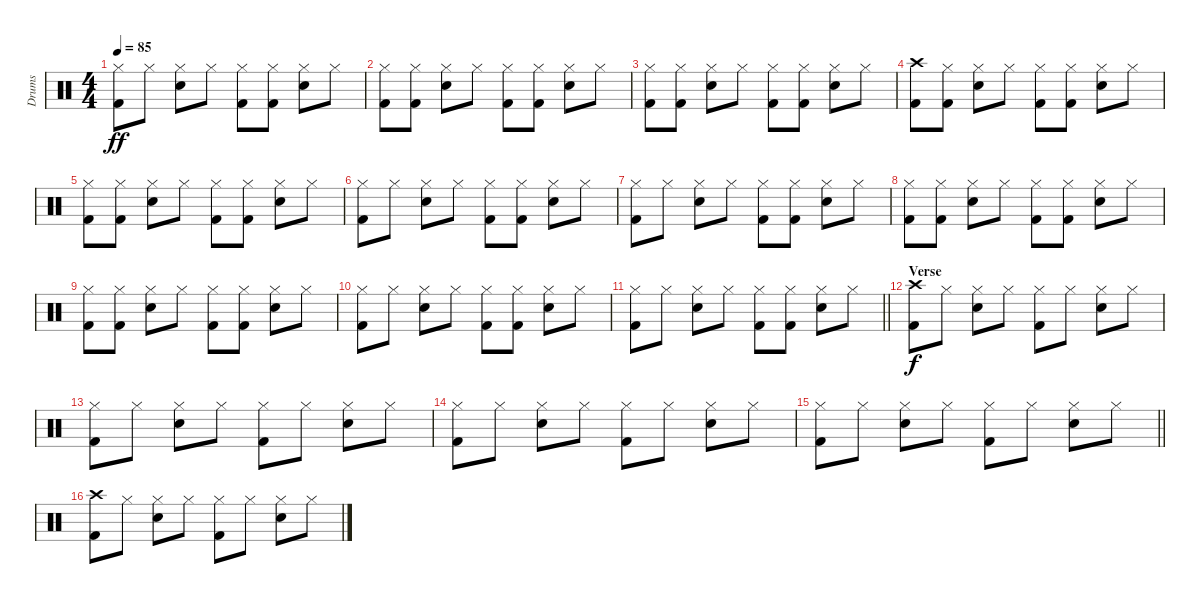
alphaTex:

\track ("Drums" "Drums") {instrument percussion}
\staff {score}
\articulation defaults
\ts (4 4)
\tempo 85
\clef neutral
\ks c
("Hi-Hat (closed)" "Kick (hit) 2").8{dy ff} "Hi-Hat (closed)".8 ("Hi-Hat (closed)" "Snare (hit) 2").8 "Hi-Hat (closed)".8 ("Hi-Hat (closed)" "Kick (hit) 2").8 ("Hi-Hat (closed)" "Kick (hit) 2").8 ("Hi-Hat (closed)" "Snare (hit) 2").8 "Hi-Hat (closed)".8 |
("Hi-Hat (closed)" "Kick (hit) 2").8 ("Hi-Hat (closed)" "Kick (hit) 2").8 ("Hi-Hat (closed)" "Snare (hit) 2").8 "Hi-Hat (closed)".8 ("Hi-Hat (closed)" "Kick (hit) 2").8 ("Hi-Hat (closed)" "Kick (hit) 2").8 ("Hi-Hat (closed)" "Snare (hit) 2").8 "Hi-Hat (closed)".8 |
("Hi-Hat (closed)" "Kick (hit) 2").8 ("Hi-Hat (closed)" "Kick (hit) 2").8 ("Hi-Hat (closed)" "Snare (hit) 2").8 "Hi-Hat (closed)".8 ("Hi-Hat (closed)" "Kick (hit) 2").8 ("Hi-Hat (closed)" "Kick (hit) 2").8 ("Hi-Hat (closed)" "Snare (hit) 2").8 "Hi-Hat (closed)".8 |
("Crash high (hit)" "Kick (hit) 2").8 ("Hi-Hat (closed)" "Kick (hit) 2").8 ("Hi-Hat (closed)" "Snare (hit) 2").8 "Hi-Hat (closed)".8 ("Hi-Hat (closed)" "Kick (hit) 2").8 ("Hi-Hat (closed)" "Kick (hit) 2").8 ("Hi-Hat (closed)" "Snare (hit) 2").8 "Hi-Hat (closed)".8 |
("Hi-Hat (closed)" "Kick (hit) 2").8 ("Hi-Hat (closed)" "Kick (hit) 2").8 ("Hi-Hat (closed)" "Snare (hit) 2").8 "Hi-Hat (closed)".8 ("Hi-Hat (closed)" "Kick (hit) 2").8 ("Hi-Hat (closed)" "Kick (hit) 2").8 ("Hi-Hat (closed)" "Snare (hit) 2").8 "Hi-Hat (closed)".8 |
("Hi-Hat (closed)" "Kick (hit) 2").8 "Hi-Hat (closed)".8 ("Hi-Hat (closed)" "Snare (hit) 2").8 "Hi-Hat (closed)".8 ("Hi-Hat (closed)" "Kick (hit) 2").8 ("Hi-Hat (closed)" "Kick (hit) 2").8 ("Hi-Hat (closed)" "Snare (hit) 2").8 "Hi-Hat (closed)".8 |
("Hi-Hat (closed)" "Kick (hit) 2").8 "Hi-Hat (closed)".8 ("Hi-Hat (closed)" "Snare (hit) 2").8 "Hi-Hat (closed)".8 ("Hi-Hat (closed)" "Kick (hit) 2").8 ("Hi-Hat (closed)" "Kick (hit) 2").8 ("Hi-Hat (closed)" "Snare (hit) 2").8 "Hi-Hat (closed)".8 |
("Hi-Hat (closed)" "Kick (hit) 2").8 ("Hi-Hat (closed)" "Kick (hit) 2").8 ("Hi-Hat (closed)" "Snare (hit) 2").8 "Hi-Hat (closed)".8 ("Hi-Hat (closed)" "Kick (hit) 2").8 ("Hi-Hat (closed)" "Kick (hit) 2").8 ("Hi-Hat (closed)" "Snare (hit) 2").8 "Hi-Hat (closed)".8 |
("Hi-Hat (closed)" "Kick (hit) 2").8 ("Hi-Hat (closed)" "Kick (hit) 2").8 ("Hi-Hat (closed)" "Snare (hit) 2").8 "Hi-Hat (closed)".8 ("Hi-Hat (closed)" "Kick (hit) 2").8 ("Hi-Hat (closed)" "Kick (hit) 2").8 ("Hi-Hat (closed)" "Snare (hit) 2").8 "Hi-Hat (closed)".8 |
("Hi-Hat (closed)" "Kick (hit) 2").8 "Hi-Hat (closed)".8 ("Hi-Hat (closed)" "Snare (hit) 2").8 "Hi-Hat (closed)".8 ("Hi-Hat (closed)" "Kick (hit) 2").8 ("Hi-Hat (closed)" "Kick (hit) 2").8 ("Hi-Hat (closed)" "Snare (hit) 2").8 "Hi-Hat (closed)".8 |
\barLineRight lightlight
("Hi-Hat (closed)" "Kick (hit) 2").8 "Hi-Hat (closed)".8 ("Hi-Hat (closed)" "Snare (hit) 2").8 "Hi-Hat (closed)".8 ("Hi-Hat (closed)" "Kick (hit) 2").8 ("Hi-Hat (closed)" "Kick (hit) 2").8 ("Hi-Hat (closed)" "Snare (hit) 2").8 "Hi-Hat (closed)".8 |
\section ("" "Verse")
("Crash high (hit)" "Kick (hit) 2").8{dy f} "Hi-Hat (closed)".8 ("Hi-Hat (closed)" "Snare (hit) 2").8 "Hi-Hat (closed)".8 ("Hi-Hat (closed)" "Kick (hit) 2").8 "Hi-Hat (closed)".8 ("Hi-Hat (closed)" "Snare (hit) 2").8 "Hi-Hat (closed)".8 |
("Hi-Hat (closed)" "Kick (hit) 2").8 "Hi-Hat (closed)".8 ("Hi-Hat (closed)" "Snare (hit) 2").8 "Hi-Hat (closed)".8 ("Hi-Hat (closed)" "Kick (hit) 2").8 "Hi-Hat (closed)".8 ("Hi-Hat (closed)" "Snare (hit) 2").8 "Hi-Hat (closed)".8 |
("Hi-Hat (closed)" "Kick (hit) 2").8 "Hi-Hat (closed)".8 ("Hi-Hat (closed)" "Snare (hit) 2").8 "Hi-Hat (closed)".8 ("Hi-Hat (closed)" "Kick (hit) 2").8 "Hi-Hat (closed)".8 ("Hi-Hat (closed)" "Snare (hit) 2").8 "Hi-Hat (closed)".8 |
\barLineRight lightlight
("Hi-Hat (closed)" "Kick (hit) 2").8 "Hi-Hat (closed)".8 ("Hi-Hat (closed)" "Snare (hit) 2").8 "Hi-Hat (closed)".8 ("Hi-Hat (closed)" "Kick (hit) 2").8 "Hi-Hat (closed)".8 ("Hi-Hat (closed)" "Snare (hit) 2").8 "Hi-Hat (closed)".8 |
("Crash high (hit)" "Kick (hit) 2").8 "Hi-Hat (closed)".8 ("Hi-Hat (closed)" "Snare (hit) 2").8 "Hi-Hat (closed)".8 ("Hi-Hat (closed)" "Kick (hit) 2").8 "Hi-Hat (closed)".8 ("Hi-Hat (closed)" "Snare (hit) 2").8 "Hi-Hat (closed)".8
